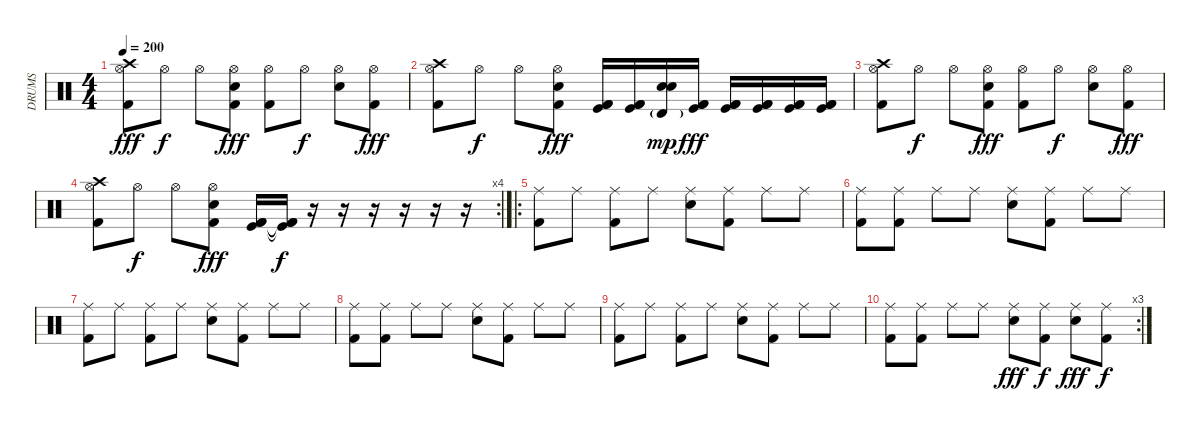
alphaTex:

\track ("DRUMS" "DRUMS") {instrument percussion}
\staff {score}
\articulation defaults
\ts (4 4)
\tempo 200
\clef neutral
\ks c
("Hi-Hat (open)" "Crash high (hit)" "Kick (hit) 2").8{dy fff} "Hi-Hat (open)".8{dy f} "Hi-Hat (open)".8 ("Hi-Hat (open)" "Electric Snare (hit)" "Kick (hit) 2").8{dy fff} ("Hi-Hat (open)" "Kick (hit) 2").8 "Hi-Hat (open)".8{dy f} ("Hi-Hat (open)" "Electric Snare (hit)").8 ("Hi-Hat (open)" "Kick (hit) 2").8{dy fff} |
("Hi-Hat (open)" "Crash high (hit)" "Kick (hit) 2").8 "Hi-Hat (open)".8{dy f} "Hi-Hat (open)".8 ("Hi-Hat (open)" "Electric Snare (hit)" "Kick (hit) 2").8{dy fff} ("Kick (hit)" "Kick (hit) 2" "Kick (hit) 2").16 ("Kick (hit)" "Kick (hit) 2" "Kick (hit) 2").16 ("Snare (hit) 2" "Timbale high (hit)"{g} "Electric Snare (hit)").16{dy mp} ("Kick (hit)" "Kick (hit) 2" "Kick (hit) 2").16{dy fff} ("Kick (hit)" "Kick (hit) 2" "Kick (hit) 2").16 ("Kick (hit)" "Kick (hit) 2" "Kick (hit) 2").16 ("Kick (hit)" "Kick (hit) 2" "Kick (hit) 2").16 ("Kick (hit)" "Kick (hit) 2" "Kick (hit) 2").16 |
("Hi-Hat (open)" "Crash high (hit)" "Kick (hit) 2").8 "Hi-Hat (open)".8{dy f} "Hi-Hat (open)".8 ("Hi-Hat (open)" "Electric Snare (hit)" "Kick (hit) 2").8{dy fff} ("Hi-Hat (open)" "Kick (hit) 2").8 "Hi-Hat (open)".8{dy f} ("Hi-Hat (open)" "Electric Snare (hit)").8 ("Hi-Hat (open)" "Kick (hit) 2").8{dy fff} |
\rc 4
("Hi-Hat (open)" "Crash high (hit)" "Kick (hit) 2").8 "Hi-Hat (open)".8{dy f} "Hi-Hat (open)".8 ("Hi-Hat (open)" "Electric Snare (hit)" "Kick (hit) 2").8{dy fff} ("Kick (hit)" "Kick (hit) 2" "Kick (hit) 2").16 ("Kick (hit)"{t} "Kick (hit) 2"{t} "Kick (hit) 2"{t}).16{dy f} r.16 r.16 r.16 r.16 r.16 r.16 |
\ro
("Ride (middle)" "Kick (hit) 2").8 "Ride (middle)".8 ("Ride (middle)" "Kick (hit) 2").8 "Ride (middle)".8 ("Ride (middle)" "Snare (hit) 2").8 ("Ride (middle)" "Kick (hit) 2").8 "Ride (middle)".8 "Ride (middle)".8 |
("Ride (middle)" "Kick (hit) 2").8 ("Ride (middle)" "Kick (hit) 2").8 "Ride (middle)".8 "Ride (middle)".8 ("Ride (middle)" "Snare (hit) 2").8 ("Ride (middle)" "Kick (hit) 2").8 "Ride (middle)".8 "Ride (middle)".8 |
("Ride (middle)" "Kick (hit) 2").8 "Ride (middle)".8 ("Ride (middle)" "Kick (hit) 2").8 "Ride (middle)".8 ("Ride (middle)" "Snare (hit) 2").8 ("Ride (middle)" "Kick (hit) 2").8 "Ride (middle)".8 "Ride (middle)".8 |
("Ride (middle)" "Kick (hit) 2").8 ("Ride (middle)" "Kick (hit) 2").8 "Ride (middle)".8 "Ride (middle)".8 ("Ride (middle)" "Snare (hit) 2").8 ("Ride (middle)" "Kick (hit) 2").8 "Ride (middle)".8 "Ride (middle)".8 |
("Ride (middle)" "Kick (hit) 2").8 "Ride (middle)".8 ("Ride (middle)" "Kick (hit) 2").8 "Ride (middle)".8 ("Ride (middle)" "Snare (hit) 2").8 ("Ride (middle)" "Kick (hit) 2").8 "Ride (middle)".8 "Ride (middle)".8 |
\rc 3
("Ride (middle)" "Kick (hit) 2").8 ("Ride (middle)" "Kick (hit) 2").8 "Ride (middle)".8 "Ride (middle)".8 ("Ride (middle)" "Snare (hit) 2").8{dy fff} ("Ride (middle)" "Kick (hit) 2").8{dy f} ("Ride (middle)" "Snare (hit) 2").8{dy fff} ("Ride (middle)" "Kick (hit) 2").8{dy f}
